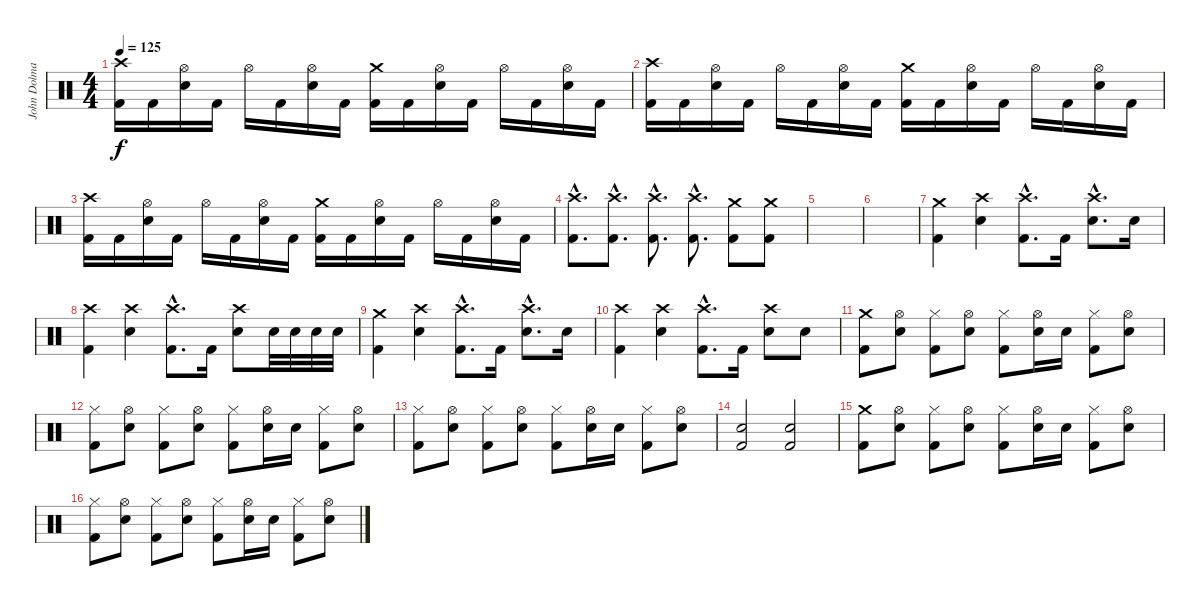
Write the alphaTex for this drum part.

\track ("John Dolmayan" "John Dolma") {instrument percussion}
\staff {score}
\articulation defaults
\ts (4 4)
\tempo 125
\clef neutral
\ks c
("Crash high (hit)" "Kick (hit) 2").16{dy f} "Kick (hit) 2".16 ("Hi-Hat (open)" "Electric Snare (hit)").16 "Kick (hit) 2".16 "Hi-Hat (open)".16 "Kick (hit) 2".16 ("Hi-Hat (open)" "Electric Snare (hit)").16 "Kick (hit) 2".16 ("Crash medium (hit)" "Kick (hit) 2").16 "Kick (hit) 2".16 ("Hi-Hat (open)" "Electric Snare (hit)").16 "Kick (hit) 2".16 "Hi-Hat (open)".16 "Kick (hit) 2".16 ("Hi-Hat (open)" "Electric Snare (hit)").16 "Kick (hit) 2".16 |
("Crash high (hit)" "Kick (hit) 2").16 "Kick (hit) 2".16 ("Hi-Hat (open)" "Electric Snare (hit)").16 "Kick (hit) 2".16 "Hi-Hat (open)".16 "Kick (hit) 2".16 ("Hi-Hat (open)" "Electric Snare (hit)").16 "Kick (hit) 2".16 ("Crash medium (hit)" "Kick (hit) 2").16 "Kick (hit) 2".16 ("Hi-Hat (open)" "Electric Snare (hit)").16 "Kick (hit) 2".16 "Hi-Hat (open)".16 "Kick (hit) 2".16 ("Hi-Hat (open)" "Electric Snare (hit)").16 "Kick (hit) 2".16 |
("Crash high (hit)" "Kick (hit) 2").16 "Kick (hit) 2".16 ("Hi-Hat (open)" "Electric Snare (hit)").16 "Kick (hit) 2".16 "Hi-Hat (open)".16 "Kick (hit) 2".16 ("Hi-Hat (open)" "Electric Snare (hit)").16 "Kick (hit) 2".16 ("Crash medium (hit)" "Kick (hit) 2").16 "Kick (hit) 2".16 ("Hi-Hat (open)" "Electric Snare (hit)").16 "Kick (hit) 2".16 "Hi-Hat (open)".16 "Kick (hit) 2".16 ("Hi-Hat (open)" "Electric Snare (hit)").16 "Kick (hit) 2".16 |
("Crash high (hit)"{hac} "Kick (hit) 2"{hac}).8{d} ("Crash high (hit)"{hac} "Kick (hit) 2"{hac}).8{d} ("Crash high (hit)"{hac} "Kick (hit) 2"{hac}).8{d} ("Crash high (hit)"{hac} "Kick (hit) 2"{hac}).8{d} ("Crash medium (hit)" "Kick (hit) 2").8 ("Crash medium (hit)" "Kick (hit) 2").8 |
|
|
("Crash medium (hit)" "Kick (hit) 2").4 ("Crash high (hit)" "Electric Snare (hit)").4 ("Crash high (hit)"{hac} "Kick (hit) 2"{hac}).8{d} "Kick (hit) 2".16 ("Crash high (hit)"{hac} "Electric Snare (hit)"{hac}).8{d} "Electric Snare (hit)".16 |
("Crash high (hit)" "Kick (hit) 2").4 ("Crash high (hit)" "Electric Snare (hit)").4 ("Crash high (hit)"{hac} "Kick (hit) 2"{hac}).8{d} "Kick (hit) 2".16 ("Crash high (hit)" "Electric Snare (hit)").8 "Electric Snare (hit)".32 "Electric Snare (hit)".32 "Electric Snare (hit)".32 "Electric Snare (hit)".32 |
("Crash medium (hit)" "Kick (hit) 2").4 ("Crash high (hit)" "Electric Snare (hit)").4 ("Crash high (hit)"{hac} "Kick (hit) 2"{hac}).8{d} "Kick (hit) 2".16 ("Crash high (hit)"{hac} "Electric Snare (hit)"{hac}).8{d} "Electric Snare (hit)".16 |
("Crash high (hit)" "Kick (hit) 2").4 ("Crash high (hit)" "Electric Snare (hit)").4 ("Crash high (hit)"{hac} "Kick (hit) 2"{hac}).8{d} "Kick (hit) 2".16 ("Crash high (hit)" "Electric Snare (hit)").8 "Electric Snare (hit)".8 |
("Crash medium (hit)" "Kick (hit) 2").8 ("Hi-Hat (open)" "Electric Snare (hit)").8 ("Hi-Hat (closed)" "Kick (hit) 2").8 ("Hi-Hat (open)" "Electric Snare (hit)").8 ("Hi-Hat (closed)" "Kick (hit) 2").8 ("Hi-Hat (open)" "Electric Snare (hit)").16 "Electric Snare (hit)".16 ("Hi-Hat (closed)" "Kick (hit) 2").8 ("Hi-Hat (open)" "Electric Snare (hit)").8 |
("Hi-Hat (closed)" "Kick (hit) 2").8 ("Hi-Hat (open)" "Electric Snare (hit)").8 ("Hi-Hat (closed)" "Kick (hit) 2").8 ("Hi-Hat (open)" "Electric Snare (hit)").8 ("Hi-Hat (closed)" "Kick (hit) 2").8 ("Hi-Hat (open)" "Electric Snare (hit)").16 "Electric Snare (hit)".16 ("Hi-Hat (closed)" "Kick (hit) 2").8 ("Hi-Hat (open)" "Electric Snare (hit)").8 |
("Hi-Hat (closed)" "Kick (hit) 2").8 ("Hi-Hat (open)" "Electric Snare (hit)").8 ("Hi-Hat (closed)" "Kick (hit) 2").8 ("Hi-Hat (open)" "Electric Snare (hit)").8 ("Hi-Hat (closed)" "Kick (hit) 2").8 ("Hi-Hat (open)" "Electric Snare (hit)").16 "Electric Snare (hit)".16 ("Hi-Hat (closed)" "Kick (hit) 2").8 ("Hi-Hat (open)" "Electric Snare (hit)").8 |
("Kick (hit) 2" "Electric Snare (hit)").2 ("Kick (hit) 2" "Electric Snare (hit)").2 |
("Crash medium (hit)" "Kick (hit) 2").8 ("Hi-Hat (open)" "Electric Snare (hit)").8 ("Hi-Hat (closed)" "Kick (hit) 2").8 ("Hi-Hat (open)" "Electric Snare (hit)").8 ("Hi-Hat (closed)" "Kick (hit) 2").8 ("Hi-Hat (open)" "Electric Snare (hit)").16 "Electric Snare (hit)".16 ("Hi-Hat (closed)" "Kick (hit) 2").8 ("Hi-Hat (open)" "Electric Snare (hit)").8 |
("Hi-Hat (closed)" "Kick (hit) 2").8 ("Hi-Hat (open)" "Electric Snare (hit)").8 ("Hi-Hat (closed)" "Kick (hit) 2").8 ("Hi-Hat (open)" "Electric Snare (hit)").8 ("Hi-Hat (closed)" "Kick (hit) 2").8 ("Hi-Hat (open)" "Electric Snare (hit)").16 "Electric Snare (hit)".16 ("Hi-Hat (closed)" "Kick (hit) 2").8 ("Hi-Hat (open)" "Electric Snare (hit)").8
